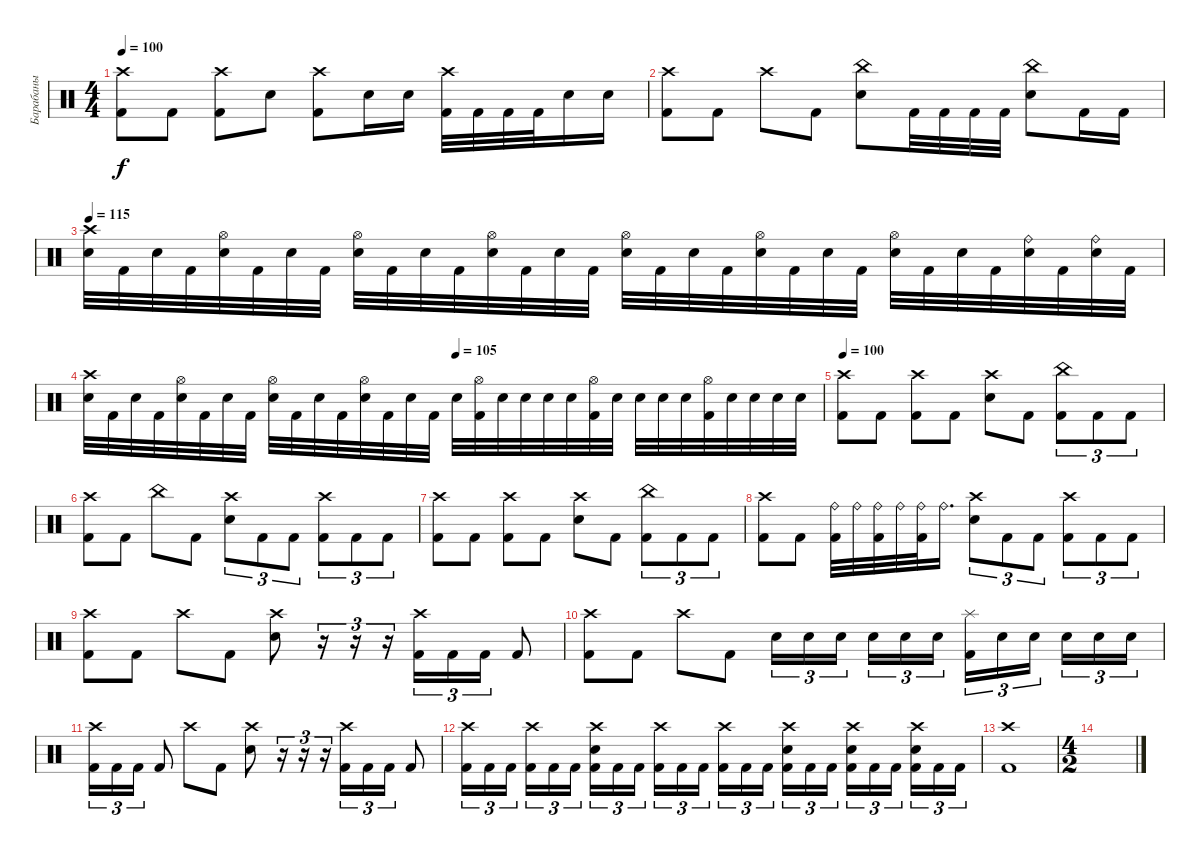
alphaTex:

\track ("Барабаны" "Барабаны") {instrument percussion}
\staff {score}
\articulation defaults
\ts (4 4)
\tempo 100
\clef neutral
\ks c
("Crash high (hit)" "Kick (hit) 2").8{dy f} "Kick (hit) 2".8 ("Crash high (hit)" "Kick (hit) 2").8 "Electric Snare (hit)".8 ("Crash high (hit)" "Kick (hit) 2").8 "Electric Snare (hit)".16 "Electric Snare (hit)".16 ("Crash high (hit)" "Kick (hit) 2").32 "Kick (hit) 2".32 "Kick (hit) 2".32 "Kick (hit) 2".32 "Electric Snare (hit)".16 "Electric Snare (hit)".16 |
("Crash high (hit)" "Kick (hit) 2").8 "Kick (hit) 2".8 "Crash high (hit)".8 "Kick (hit) 2".8 ("China (hit)" "Electric Snare (hit)").8 "Kick (hit) 2".32 "Kick (hit) 2".32 "Kick (hit) 2".32 "Kick (hit) 2".32 ("China (hit)" "Electric Snare (hit)").8 "Kick (hit) 2".16 "Kick (hit) 2".16 |
\tempo 115
("Crash high (hit)" "Electric Snare (hit)").32 "Kick (hit) 2".32 "Electric Snare (hit)".32 "Kick (hit) 2".32 ("Hi-Hat (open)" "Electric Snare (hit)").32 "Kick (hit) 2".32 "Electric Snare (hit)".32 "Kick (hit) 2".32 ("Hi-Hat (open)" "Electric Snare (hit)").32 "Kick (hit) 2".32 "Electric Snare (hit)".32 "Kick (hit) 2".32 ("Hi-Hat (open)" "Electric Snare (hit)").32 "Kick (hit) 2".32 "Electric Snare (hit)".32 "Kick (hit) 2".32 ("Hi-Hat (open)" "Electric Snare (hit)").32 "Kick (hit) 2".32 "Electric Snare (hit)".32 "Kick (hit) 2".32 ("Hi-Hat (open)" "Electric Snare (hit)").32 "Kick (hit) 2".32 "Electric Snare (hit)".32 "Kick (hit) 2".32 ("Hi-Hat (open)" "Electric Snare (hit)").32 "Kick (hit) 2".32 "Electric Snare (hit)".32 "Kick (hit) 2".32 ("Ride (bell)" "Electric Snare (hit)").32 "Kick (hit) 2".32 ("Ride (bell)" "Electric Snare (hit)").32 "Kick (hit) 2".32 |
\tempo (105 0.5)
("Crash high (hit)" "Electric Snare (hit)").32 "Kick (hit) 2".32 "Electric Snare (hit)".32 "Kick (hit) 2".32 ("Hi-Hat (open)" "Electric Snare (hit)").32 "Kick (hit) 2".32 "Electric Snare (hit)".32 "Kick (hit) 2".32 ("Hi-Hat (open)" "Electric Snare (hit)").32 "Kick (hit) 2".32 "Electric Snare (hit)".32 "Kick (hit) 2".32 ("Hi-Hat (open)" "Electric Snare (hit)").32 "Kick (hit) 2".32 "Electric Snare (hit)".32 "Kick (hit) 2".32 "Electric Snare (hit)".32 ("Hi-Hat (open)" "Kick (hit) 2").32 "Electric Snare (hit)".32 "Electric Snare (hit)".32 "Electric Snare (hit)".32 "Electric Snare (hit)".32 ("Hi-Hat (open)" "Kick (hit) 2").32 "Electric Snare (hit)".32 "Electric Snare (hit)".32 "Electric Snare (hit)".32 "Electric Snare (hit)".32 ("Hi-Hat (open)" "Kick (hit) 2").32 "Electric Snare (hit)".32 "Electric Snare (hit)".32 "Electric Snare (hit)".32 "Electric Snare (hit)".32 |
\tempo 100
("Crash high (hit)" "Kick (hit) 2").8 "Kick (hit) 2".8 ("Crash high (hit)" "Kick (hit) 2").8 "Kick (hit) 2".8 ("Crash high (hit)" "Electric Snare (hit)").8 "Kick (hit) 2".8 ("China (hit)" "Kick (hit) 2").8{tu (3 2)} "Kick (hit) 2".8{tu (3 2)} "Kick (hit) 2".8{tu (3 2)} |
("Crash high (hit)" "Kick (hit) 2").8 "Kick (hit) 2".8 "China (hit)".8 "Kick (hit) 2".8 ("Crash high (hit)" "Electric Snare (hit)").8{tu (3 2)} "Kick (hit) 2".8{tu (3 2)} "Kick (hit) 2".8{tu (3 2)} ("Crash high (hit)" "Kick (hit) 2").8{tu (3 2)} "Kick (hit) 2".8{tu (3 2)} "Kick (hit) 2".8{tu (3 2)} |
("Crash high (hit)" "Kick (hit) 2").8 "Kick (hit) 2".8 ("Crash high (hit)" "Kick (hit) 2").8 "Kick (hit) 2".8 ("Crash high (hit)" "Electric Snare (hit)").8 "Kick (hit) 2".8 ("China (hit)" "Kick (hit) 2").8{tu (3 2)} "Kick (hit) 2".8{tu (3 2)} "Kick (hit) 2".8{tu (3 2)} |
("Crash high (hit)" "Kick (hit) 2").8 "Kick (hit) 2".8 ("Ride (bell)" "Kick (hit) 2").32 "Ride (bell)".32 ("Ride (bell)" "Kick (hit) 2").32 "Ride (bell)".32 ("Ride (bell)" "Kick (hit) 2").32 "Ride (bell)".16{d} ("Crash high (hit)" "Electric Snare (hit)").8{tu (3 2)} "Kick (hit) 2".8{tu (3 2)} "Kick (hit) 2".8{tu (3 2)} ("Crash high (hit)" "Kick (hit) 2").8{tu (3 2)} "Kick (hit) 2".8{tu (3 2)} "Kick (hit) 2".8{tu (3 2)} |
("Crash high (hit)" "Kick (hit) 2").8 "Kick (hit) 2".8 "Crash high (hit)".8 "Kick (hit) 2".8 ("Crash high (hit)" "Electric Snare (hit)").8 r.16{tu (3 2)} r.16{tu (3 2)} r.16{tu (3 2)} ("Crash high (hit)" "Kick (hit) 2").16{tu (3 2)} "Kick (hit) 2".16{tu (3 2)} "Kick (hit) 2".16{tu (3 2)} "Kick (hit) 2".8 |
("Crash high (hit)" "Kick (hit) 2").8 "Kick (hit) 2".8 "Crash high (hit)".8 "Kick (hit) 2".8 "Electric Snare (hit)".16{tu (3 2)} "Electric Snare (hit)".16{tu (3 2)} "Electric Snare (hit)".16{tu (3 2) beam splitsecondary} "Electric Snare (hit)".16{tu (3 2)} "Electric Snare (hit)".16{tu (3 2)} "Electric Snare (hit)".16{tu (3 2)} ("Splash (hit)" "Kick (hit) 2").16{tu (3 2)} "Electric Snare (hit)".16{tu (3 2)} "Electric Snare (hit)".16{tu (3 2) beam splitsecondary} "Electric Snare (hit)".16{tu (3 2)} "Electric Snare (hit)".16{tu (3 2)} "Electric Snare (hit)".16{tu (3 2)} |
("Crash high (hit)" "Kick (hit) 2").16{tu (3 2)} "Kick (hit) 2".16{tu (3 2)} "Kick (hit) 2".16{tu (3 2)} "Kick (hit) 2".8 "Crash high (hit)".8 "Kick (hit) 2".8 ("Crash high (hit)" "Electric Snare (hit)").8 r.16{tu (3 2)} r.16{tu (3 2)} r.16{tu (3 2)} ("Crash high (hit)" "Kick (hit) 2").16{tu (3 2)} "Kick (hit) 2".16{tu (3 2)} "Kick (hit) 2".16{tu (3 2)} "Kick (hit) 2".8 |
("Crash high (hit)" "Kick (hit) 2").16{tu (3 2)} "Kick (hit) 2".16{tu (3 2)} "Kick (hit) 2".16{tu (3 2) beam splitsecondary} ("Crash high (hit)" "Kick (hit) 2").16{tu (3 2)} "Kick (hit) 2".16{tu (3 2)} "Kick (hit) 2".16{tu (3 2)} ("Crash high (hit)" "Electric Snare (hit)" "Kick (hit) 2").16{tu (3 2)} "Kick (hit) 2".16{tu (3 2)} "Kick (hit) 2".16{tu (3 2) beam splitsecondary} ("Crash high (hit)" "Kick (hit) 2").16{tu (3 2)} "Kick (hit) 2".16{tu (3 2)} "Kick (hit) 2".16{tu (3 2)} ("Crash high (hit)" "Kick (hit) 2").16{tu (3 2)} "Kick (hit) 2".16{tu (3 2)} "Kick (hit) 2".16{tu (3 2) beam splitsecondary} ("Crash high (hit)" "Electric Snare (hit)" "Kick (hit) 2").16{tu (3 2)} "Kick (hit) 2".16{tu (3 2)} "Kick (hit) 2".16{tu (3 2)} ("Crash high (hit)" "Electric Snare (hit)" "Kick (hit) 2").16{tu (3 2)} "Kick (hit) 2".16{tu (3 2)} "Kick (hit) 2".16{tu (3 2) beam splitsecondary} ("Crash high (hit)" "Electric Snare (hit)" "Kick (hit) 2").16{tu (3 2)} "Kick (hit) 2".16{tu (3 2)} "Kick (hit) 2".16{tu (3 2)} |
("Crash high (hit)" "Kick (hit) 2").1 |
\ts (4 2)
